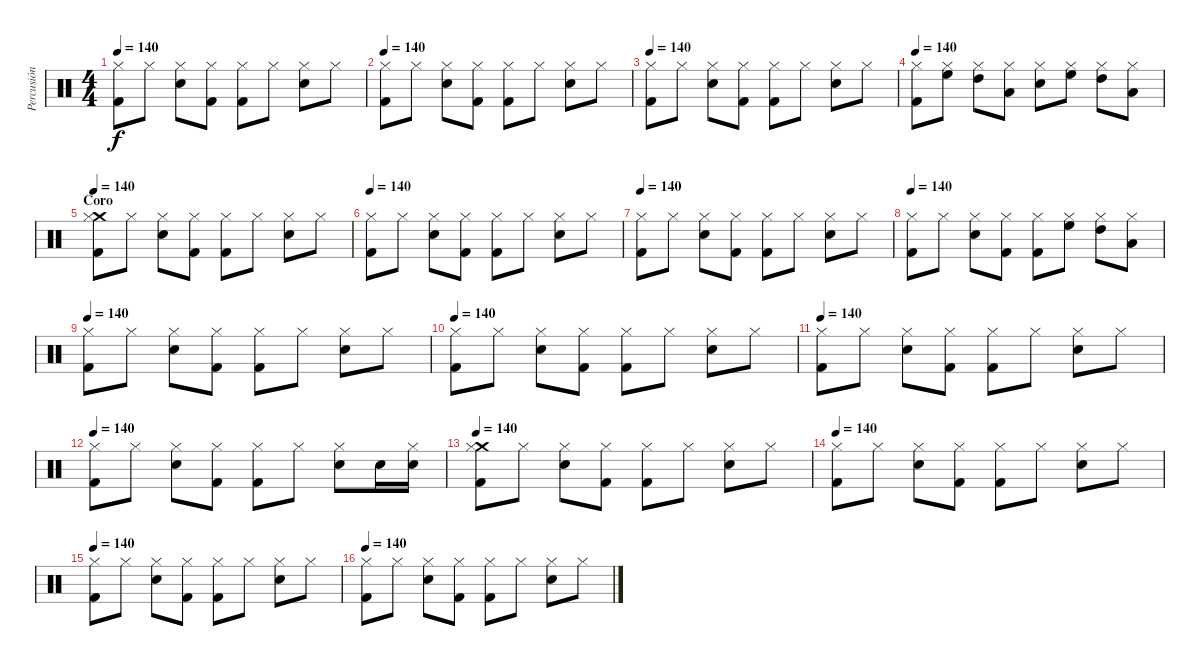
\track ("Percusión" "Percusión") {instrument percussion}
\staff {score}
\articulation defaults
\ts (4 4)
\tempo 140
\clef neutral
\ks c
("Kick (hit) 2" "Hi-Hat (closed)").8{dy f} "Hi-Hat (closed)".8 ("Snare (hit) 2" "Hi-Hat (closed)").8 ("Kick (hit) 2" "Hi-Hat (closed)").8 ("Kick (hit) 2" "Hi-Hat (closed)").8 "Hi-Hat (closed)".8 ("Snare (hit) 2" "Hi-Hat (closed)").8 "Hi-Hat (closed)".8 |
\tempo 140
("Kick (hit) 2" "Hi-Hat (closed)").8 "Hi-Hat (closed)".8 ("Snare (hit) 2" "Hi-Hat (closed)").8 ("Kick (hit) 2" "Hi-Hat (closed)").8 ("Kick (hit) 2" "Hi-Hat (closed)").8 "Hi-Hat (closed)".8 ("Snare (hit) 2" "Hi-Hat (closed)").8 "Hi-Hat (closed)".8 |
\tempo 140
("Kick (hit) 2" "Hi-Hat (closed)").8 "Hi-Hat (closed)".8 ("Snare (hit) 2" "Hi-Hat (closed)").8 ("Kick (hit) 2" "Hi-Hat (closed)").8 ("Kick (hit) 2" "Hi-Hat (closed)").8 "Hi-Hat (closed)".8 ("Snare (hit) 2" "Hi-Hat (closed)").8 "Hi-Hat (closed)".8 |
\tempo 140
("Kick (hit) 2" "Hi-Hat (closed)").8 ("High Floor Tom (hit)" "Hi-Hat (closed)").8 ("High Tom (hit)" "Hi-Hat (closed)").8 ("Low Tom (hit)" "Hi-Hat (closed)").8 ("Snare (hit) 2" "Hi-Hat (closed)").8 ("High Floor Tom (hit)" "Hi-Hat (closed)").8 ("High Tom (hit)" "Hi-Hat (closed)").8 ("Low Tom (hit)" "Hi-Hat (closed)").8 |
\section ("" "Coro")
\tempo 140
("Kick (hit) 2" "Crash medium (hit)" "Hi-Hat (closed)").8 "Hi-Hat (closed)".8 ("Snare (hit) 2" "Hi-Hat (closed)").8 ("Kick (hit) 2" "Hi-Hat (closed)").8 ("Kick (hit) 2" "Hi-Hat (closed)").8 "Hi-Hat (closed)".8 ("Snare (hit) 2" "Hi-Hat (closed)").8 "Hi-Hat (closed)".8 |
\tempo 140
("Kick (hit) 2" "Hi-Hat (closed)").8 "Hi-Hat (closed)".8 ("Snare (hit) 2" "Hi-Hat (closed)").8 ("Kick (hit) 2" "Hi-Hat (closed)").8 ("Kick (hit) 2" "Hi-Hat (closed)").8 "Hi-Hat (closed)".8 ("Snare (hit) 2" "Hi-Hat (closed)").8 "Hi-Hat (closed)".8 |
\tempo 140
("Kick (hit) 2" "Hi-Hat (closed)").8 "Hi-Hat (closed)".8 ("Snare (hit) 2" "Hi-Hat (closed)").8 ("Kick (hit) 2" "Hi-Hat (closed)").8 ("Kick (hit) 2" "Hi-Hat (closed)").8 "Hi-Hat (closed)".8 ("Snare (hit) 2" "Hi-Hat (closed)").8 "Hi-Hat (closed)".8 |
\tempo 140
("Kick (hit) 2" "Hi-Hat (closed)").8 "Hi-Hat (closed)".8 ("Snare (hit) 2" "Hi-Hat (closed)").8 ("Kick (hit) 2" "Hi-Hat (closed)").8 ("Kick (hit) 2" "Hi-Hat (closed)").8 ("High Floor Tom (hit)" "Hi-Hat (closed)").8 ("High Tom (hit)" "Hi-Hat (closed)").8 ("Low Tom (hit)" "Hi-Hat (closed)").8 |
\tempo 140
("Kick (hit) 2" "Hi-Hat (closed)").8 "Hi-Hat (closed)".8 ("Snare (hit) 2" "Hi-Hat (closed)").8 ("Kick (hit) 2" "Hi-Hat (closed)").8 ("Kick (hit) 2" "Hi-Hat (closed)").8 "Hi-Hat (closed)".8 ("Snare (hit) 2" "Hi-Hat (closed)").8 "Hi-Hat (closed)".8 |
\tempo 140
("Kick (hit) 2" "Hi-Hat (closed)").8 "Hi-Hat (closed)".8 ("Snare (hit) 2" "Hi-Hat (closed)").8 ("Kick (hit) 2" "Hi-Hat (closed)").8 ("Kick (hit) 2" "Hi-Hat (closed)").8 "Hi-Hat (closed)".8 ("Snare (hit) 2" "Hi-Hat (closed)").8 "Hi-Hat (closed)".8 |
\tempo 140
("Kick (hit) 2" "Hi-Hat (closed)").8 "Hi-Hat (closed)".8 ("Snare (hit) 2" "Hi-Hat (closed)").8 ("Kick (hit) 2" "Hi-Hat (closed)").8 ("Kick (hit) 2" "Hi-Hat (closed)").8 "Hi-Hat (closed)".8 ("Snare (hit) 2" "Hi-Hat (closed)").8 "Hi-Hat (closed)".8 |
\tempo 140
("Kick (hit) 2" "Hi-Hat (closed)").8 "Hi-Hat (closed)".8 ("Snare (hit) 2" "Hi-Hat (closed)").8 ("Kick (hit) 2" "Hi-Hat (closed)").8 ("Kick (hit) 2" "Hi-Hat (closed)").8 "Hi-Hat (closed)".8 ("Snare (hit) 2" "Hi-Hat (closed)").8 "Snare (hit) 2".16 ("Snare (hit) 2" "Hi-Hat (closed)").16 |
\tempo 140
("Kick (hit) 2" "Crash medium (hit)" "Hi-Hat (closed)").8 "Hi-Hat (closed)".8 ("Snare (hit) 2" "Hi-Hat (closed)").8 ("Kick (hit) 2" "Hi-Hat (closed)").8 ("Kick (hit) 2" "Hi-Hat (closed)").8 "Hi-Hat (closed)".8 ("Snare (hit) 2" "Hi-Hat (closed)").8 "Hi-Hat (closed)".8 |
\tempo 140
("Kick (hit) 2" "Hi-Hat (closed)").8 "Hi-Hat (closed)".8 ("Snare (hit) 2" "Hi-Hat (closed)").8 ("Kick (hit) 2" "Hi-Hat (closed)").8 ("Kick (hit) 2" "Hi-Hat (closed)").8 "Hi-Hat (closed)".8 ("Snare (hit) 2" "Hi-Hat (closed)").8 "Hi-Hat (closed)".8 |
\tempo 140
("Kick (hit) 2" "Hi-Hat (closed)").8 "Hi-Hat (closed)".8 ("Snare (hit) 2" "Hi-Hat (closed)").8 ("Kick (hit) 2" "Hi-Hat (closed)").8 ("Kick (hit) 2" "Hi-Hat (closed)").8 "Hi-Hat (closed)".8 ("Snare (hit) 2" "Hi-Hat (closed)").8 "Hi-Hat (closed)".8 |
\tempo 140
("Kick (hit) 2" "Hi-Hat (closed)").8 "Hi-Hat (closed)".8 ("Snare (hit) 2" "Hi-Hat (closed)").8 ("Kick (hit) 2" "Hi-Hat (closed)").8 ("Kick (hit) 2" "Hi-Hat (closed)").8 "Hi-Hat (closed)".8 ("Snare (hit) 2" "Hi-Hat (closed)").8 "Hi-Hat (closed)".8
